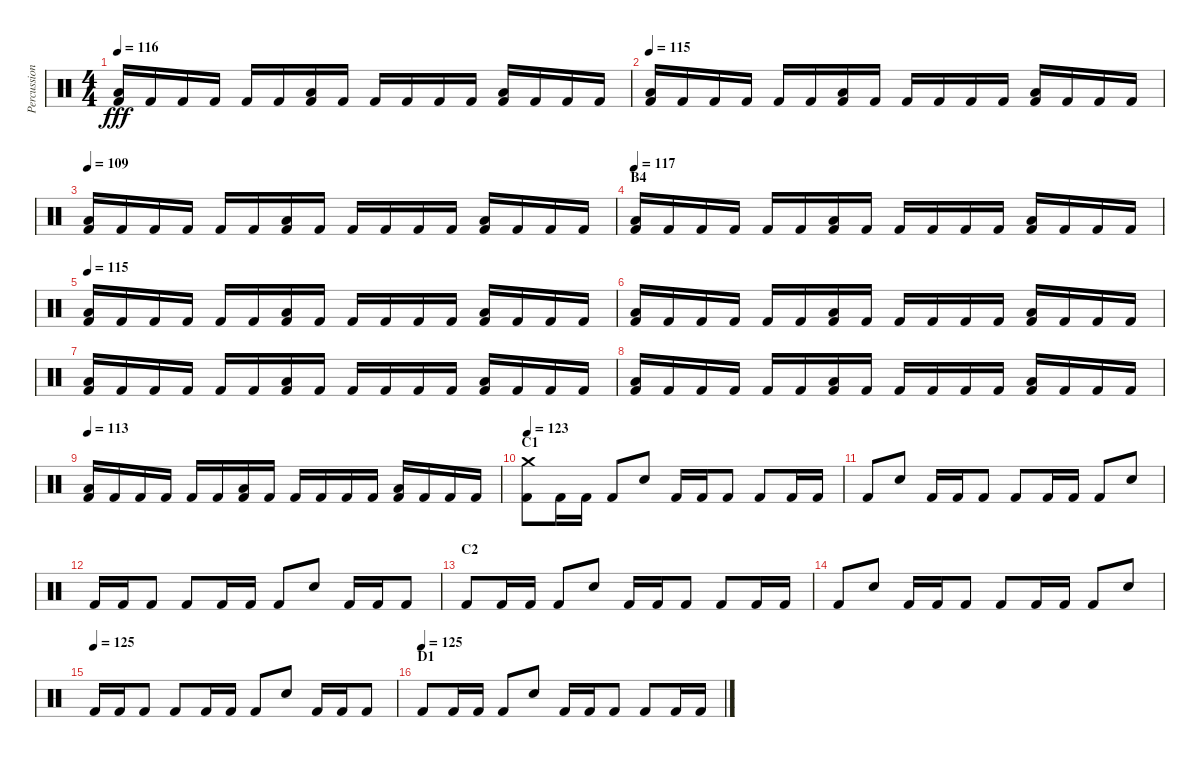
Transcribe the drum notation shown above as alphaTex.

\track ("Percussion" "Percussion") {instrument percussion}
\staff {score}
\articulation defaults
\ts (4 4)
\tempo 116
\clef neutral
\ks c
("Kick (hit) 2" "Low Tom (hit)").16{dy fff} "Kick (hit) 2".16 "Kick (hit) 2".16 "Kick (hit) 2".16 "Kick (hit) 2".16 "Kick (hit) 2".16 ("Kick (hit) 2" "Low Tom (hit)").16 "Kick (hit) 2".16 "Kick (hit) 2".16 "Kick (hit) 2".16 "Kick (hit) 2".16 "Kick (hit) 2".16 ("Kick (hit) 2" "Low Tom (hit)").16 "Kick (hit) 2".16 "Kick (hit) 2".16 "Kick (hit) 2".16 |
\tempo 115
("Kick (hit) 2" "Low Tom (hit)").16 "Kick (hit) 2".16 "Kick (hit) 2".16 "Kick (hit) 2".16 "Kick (hit) 2".16 "Kick (hit) 2".16 ("Kick (hit) 2" "Low Tom (hit)").16 "Kick (hit) 2".16 "Kick (hit) 2".16 "Kick (hit) 2".16 "Kick (hit) 2".16 "Kick (hit) 2".16 ("Kick (hit) 2" "Low Tom (hit)").16 "Kick (hit) 2".16 "Kick (hit) 2".16 "Kick (hit) 2".16 |
\tempo 109
("Kick (hit) 2" "Low Tom (hit)").16 "Kick (hit) 2".16 "Kick (hit) 2".16 "Kick (hit) 2".16 "Kick (hit) 2".16 "Kick (hit) 2".16 ("Kick (hit) 2" "Low Tom (hit)").16 "Kick (hit) 2".16 "Kick (hit) 2".16 "Kick (hit) 2".16 "Kick (hit) 2".16 "Kick (hit) 2".16 ("Kick (hit) 2" "Low Tom (hit)").16 "Kick (hit) 2".16 "Kick (hit) 2".16 "Kick (hit) 2".16 |
\section ("" "B4")
\tempo 117
("Kick (hit) 2" "Low Tom (hit)").16 "Kick (hit) 2".16 "Kick (hit) 2".16 "Kick (hit) 2".16 "Kick (hit) 2".16 "Kick (hit) 2".16 ("Kick (hit) 2" "Low Tom (hit)").16 "Kick (hit) 2".16 "Kick (hit) 2".16 "Kick (hit) 2".16 "Kick (hit) 2".16 "Kick (hit) 2".16 ("Kick (hit) 2" "Low Tom (hit)").16 "Kick (hit) 2".16 "Kick (hit) 2".16 "Kick (hit) 2".16 |
\tempo 115
("Kick (hit) 2" "Low Tom (hit)").16 "Kick (hit) 2".16 "Kick (hit) 2".16 "Kick (hit) 2".16 "Kick (hit) 2".16 "Kick (hit) 2".16 ("Kick (hit) 2" "Low Tom (hit)").16 "Kick (hit) 2".16 "Kick (hit) 2".16 "Kick (hit) 2".16 "Kick (hit) 2".16 "Kick (hit) 2".16 ("Kick (hit) 2" "Low Tom (hit)").16 "Kick (hit) 2".16 "Kick (hit) 2".16 "Kick (hit) 2".16 |
("Kick (hit) 2" "Low Tom (hit)").16 "Kick (hit) 2".16 "Kick (hit) 2".16 "Kick (hit) 2".16 "Kick (hit) 2".16 "Kick (hit) 2".16 ("Kick (hit) 2" "Low Tom (hit)").16 "Kick (hit) 2".16 "Kick (hit) 2".16 "Kick (hit) 2".16 "Kick (hit) 2".16 "Kick (hit) 2".16 ("Kick (hit) 2" "Low Tom (hit)").16 "Kick (hit) 2".16 "Kick (hit) 2".16 "Kick (hit) 2".16 |
("Kick (hit) 2" "Low Tom (hit)").16 "Kick (hit) 2".16 "Kick (hit) 2".16 "Kick (hit) 2".16 "Kick (hit) 2".16 "Kick (hit) 2".16 ("Kick (hit) 2" "Low Tom (hit)").16 "Kick (hit) 2".16 "Kick (hit) 2".16 "Kick (hit) 2".16 "Kick (hit) 2".16 "Kick (hit) 2".16 ("Kick (hit) 2" "Low Tom (hit)").16 "Kick (hit) 2".16 "Kick (hit) 2".16 "Kick (hit) 2".16 |
("Kick (hit) 2" "Low Tom (hit)").16 "Kick (hit) 2".16 "Kick (hit) 2".16 "Kick (hit) 2".16 "Kick (hit) 2".16 "Kick (hit) 2".16 ("Kick (hit) 2" "Low Tom (hit)").16 "Kick (hit) 2".16 "Kick (hit) 2".16 "Kick (hit) 2".16 "Kick (hit) 2".16 "Kick (hit) 2".16 ("Kick (hit) 2" "Low Tom (hit)").16 "Kick (hit) 2".16 "Kick (hit) 2".16 "Kick (hit) 2".16 |
\tempo 113
("Kick (hit) 2" "Low Tom (hit)").16 "Kick (hit) 2".16 "Kick (hit) 2".16 "Kick (hit) 2".16 "Kick (hit) 2".16 "Kick (hit) 2".16 ("Kick (hit) 2" "Low Tom (hit)").16 "Kick (hit) 2".16 "Kick (hit) 2".16 "Kick (hit) 2".16 "Kick (hit) 2".16 "Kick (hit) 2".16 ("Kick (hit) 2" "Low Tom (hit)").16 "Kick (hit) 2".16 "Kick (hit) 2".16 "Kick (hit) 2".16 |
\section ("" "C1")
\tempo 123
("Kick (hit) 2" "Crash medium (hit)").8 "Kick (hit) 2".16 "Kick (hit) 2".16 "Kick (hit) 2".8 "Electric Snare (hit)".8 "Kick (hit) 2".16 "Kick (hit) 2".16 "Kick (hit) 2".8 "Kick (hit) 2".8 "Kick (hit) 2".16 "Kick (hit) 2".16 |
"Kick (hit) 2".8 "Electric Snare (hit)".8 "Kick (hit) 2".16 "Kick (hit) 2".16 "Kick (hit) 2".8 "Kick (hit) 2".8 "Kick (hit) 2".16 "Kick (hit) 2".16 "Kick (hit) 2".8 "Electric Snare (hit)".8 |
"Kick (hit) 2".16 "Kick (hit) 2".16 "Kick (hit) 2".8 "Kick (hit) 2".8 "Kick (hit) 2".16 "Kick (hit) 2".16 "Kick (hit) 2".8 "Electric Snare (hit)".8 "Kick (hit) 2".16 "Kick (hit) 2".16 "Kick (hit) 2".8 |
\section ("" "C2")
"Kick (hit) 2".8 "Kick (hit) 2".16 "Kick (hit) 2".16 "Kick (hit) 2".8 "Electric Snare (hit)".8 "Kick (hit) 2".16 "Kick (hit) 2".16 "Kick (hit) 2".8 "Kick (hit) 2".8 "Kick (hit) 2".16 "Kick (hit) 2".16 |
"Kick (hit) 2".8 "Electric Snare (hit)".8 "Kick (hit) 2".16 "Kick (hit) 2".16 "Kick (hit) 2".8 "Kick (hit) 2".8 "Kick (hit) 2".16 "Kick (hit) 2".16 "Kick (hit) 2".8 "Electric Snare (hit)".8 |
\tempo (125)
"Kick (hit) 2".16 "Kick (hit) 2".16 "Kick (hit) 2".8 "Kick (hit) 2".8 "Kick (hit) 2".16 "Kick (hit) 2".16 "Kick (hit) 2".8 "Electric Snare (hit)".8 "Kick (hit) 2".16 "Kick (hit) 2".16 "Kick (hit) 2".8 |
\section ("" "D1")
\tempo (125)
"Kick (hit) 2".8 "Kick (hit) 2".16 "Kick (hit) 2".16 "Kick (hit) 2".8 "Electric Snare (hit)".8 "Kick (hit) 2".16 "Kick (hit) 2".16 "Kick (hit) 2".8 "Kick (hit) 2".8 "Kick (hit) 2".16 "Kick (hit) 2".16
